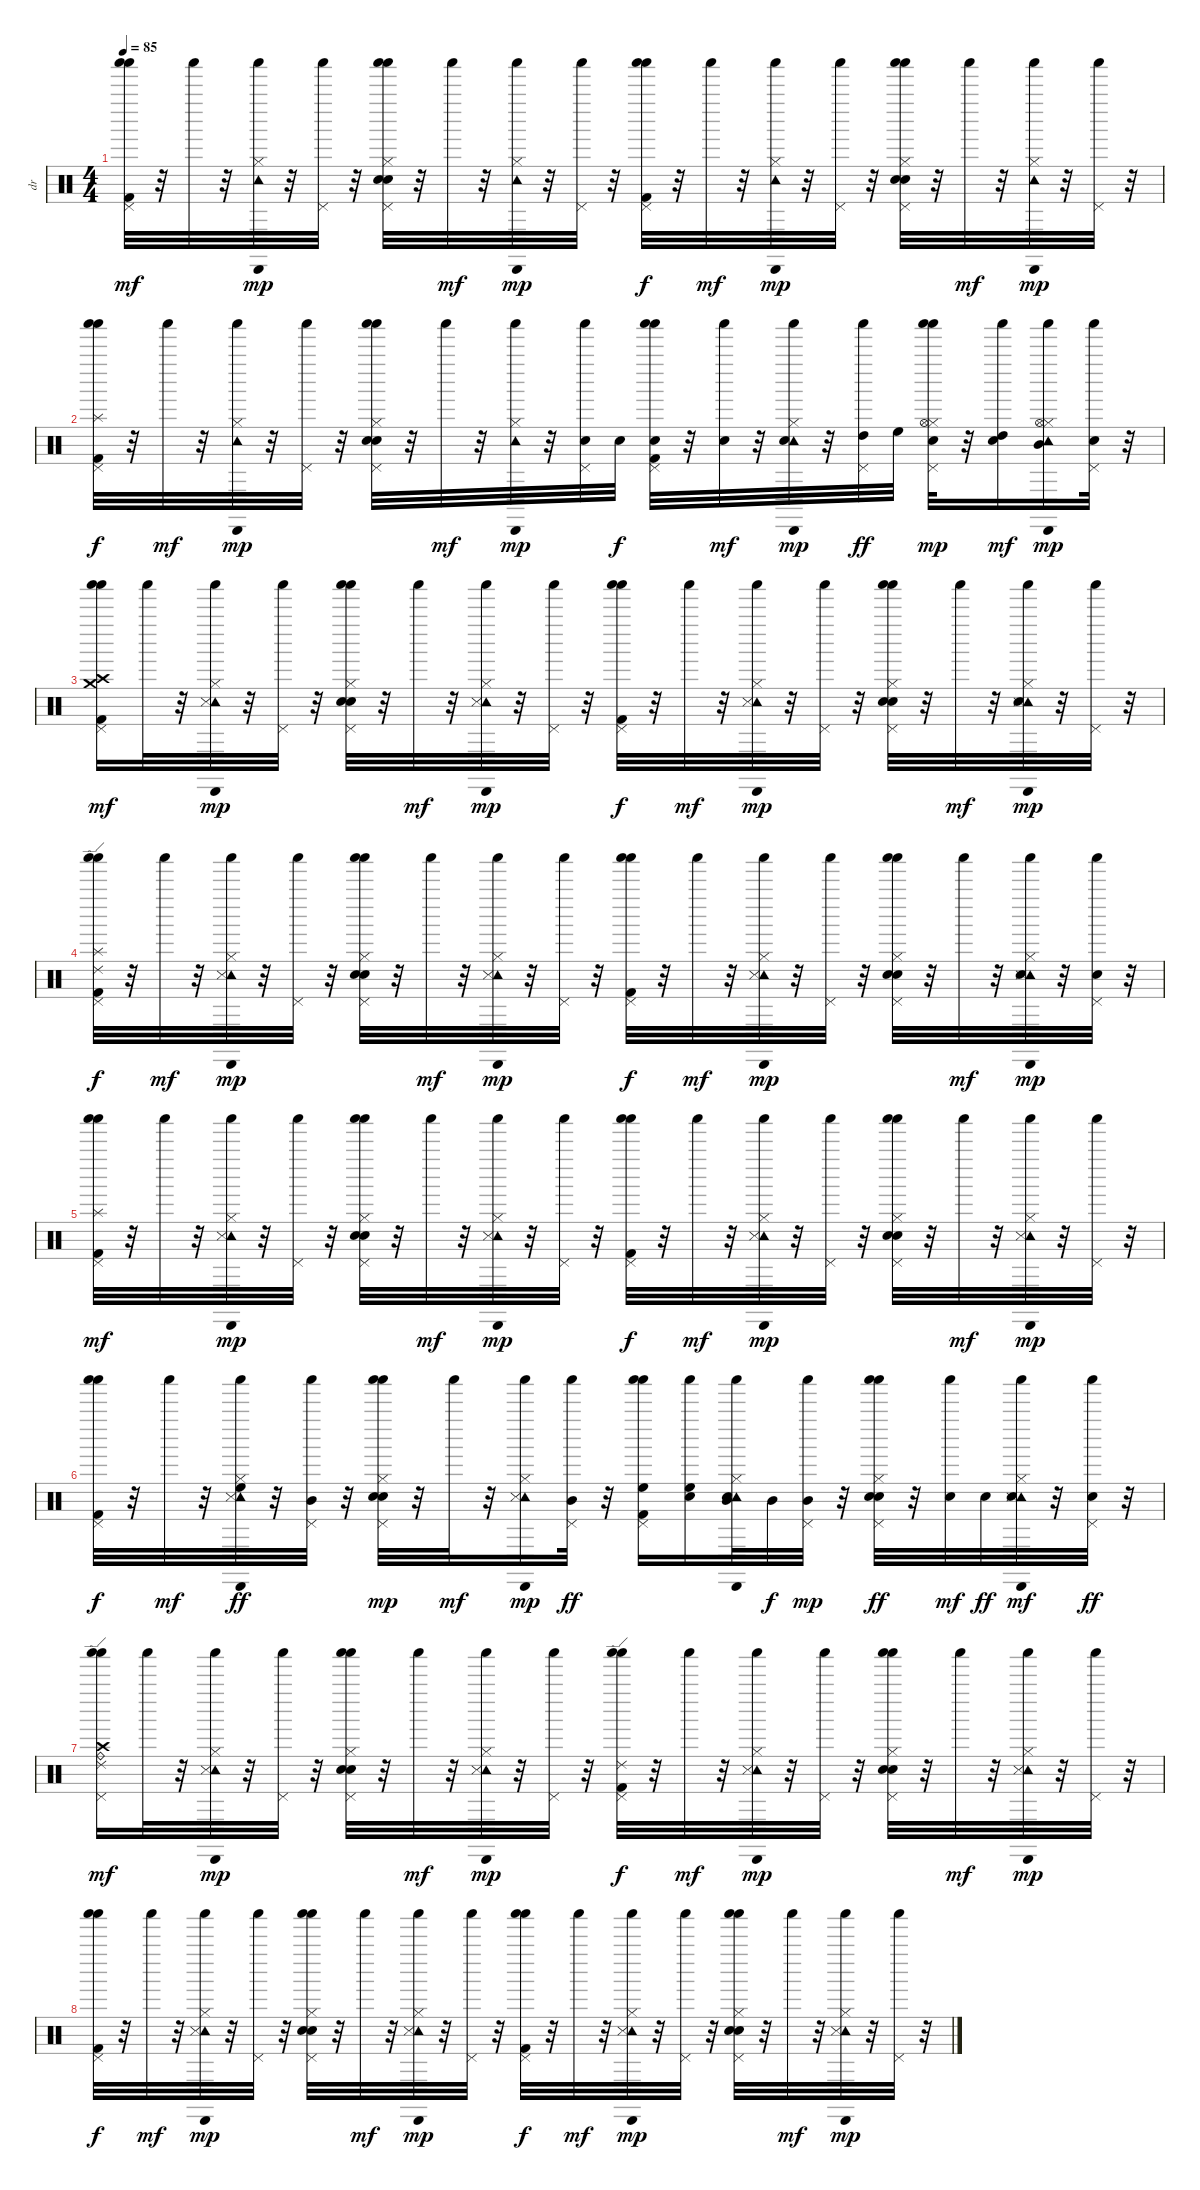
\track ("dr" "dr") {instrument percussion}
\staff {score}
\articulation defaults
\ts (4 4)
\tempo 85
\clef neutral
\ks c
("Pedal Hi-Hat (hit)" "Shaker (hit)" "Shaker (hit)" "Kick (hit) 2").32{dy mf} r.32 "Shaker (hit)".32 r.32 ("Hi-Hat (closed)" "Cabasa (hit)" "Tambourine (hit)" "Shaker (hit)").32{dy mp} r.32 ("Pedal Hi-Hat (hit)" "Shaker (hit)").32 r.32 ("Electric Snare (hit)" "Pedal Hi-Hat (hit)" "Shaker (hit)" "Shaker (hit)" "Hi-Hat (closed)" "Snare (hit) 2").32 r.32 "Shaker (hit)".32{dy mf} r.32 ("Hi-Hat (closed)" "Tambourine (hit)" "Cabasa (hit)" "Shaker (hit)").32{dy mp} r.32 ("Pedal Hi-Hat (hit)" "Shaker (hit)").32 r.32 ("Pedal Hi-Hat (hit)" "Shaker (hit)" "Shaker (hit)" "Kick (hit) 2").32{dy f} r.32 "Shaker (hit)".32{dy mf} r.32 ("Hi-Hat (closed)" "Cabasa (hit)" "Tambourine (hit)" "Shaker (hit)").32{dy mp} r.32 ("Pedal Hi-Hat (hit)" "Shaker (hit)").32 r.32 ("Electric Snare (hit)" "Pedal Hi-Hat (hit)" "Shaker (hit)" "Shaker (hit)" "Hi-Hat (closed)" "Snare (hit) 2").32 r.32 "Shaker (hit)".32{dy mf} r.32 ("Hi-Hat (closed)" "Cabasa (hit)" "Tambourine (hit)" "Shaker (hit)").32{dy mp} r.32 ("Pedal Hi-Hat (hit)" "Shaker (hit)").32 r.32 |
("Pedal Hi-Hat (hit)" "Shaker (hit)" "Shaker (hit)" "Kick (hit) 2" "Splash (hit)").32{dy f} r.32 "Shaker (hit)".32{dy mf} r.32 ("Hi-Hat (closed)" "Cabasa (hit)" "Shaker (hit)" "Tambourine (hit)").32{dy mp} r.32 ("Pedal Hi-Hat (hit)" "Shaker (hit)").32 r.32 ("Pedal Hi-Hat (hit)" "Shaker (hit)" "Shaker (hit)" "Hi-Hat (closed)" "Electric Snare (hit)" "Snare (hit) 2").32 r.32 "Shaker (hit)".32{dy mf} r.32 ("Hi-Hat (closed)" "Cabasa (hit)" "Tambourine (hit)" "Shaker (hit)").32{dy mp} r.32 ("Pedal Hi-Hat (hit)" "Shaker (hit)" "Snare (hit) 2").32 "Snare (hit) 2".32{dy f} ("Pedal Hi-Hat (hit)" "Shaker (hit)" "Shaker (hit)" "Kick (hit) 2" "Snare (hit) 2").32 r.32 ("Shaker (hit)" "Snare (hit) 2").32{dy mf} r.32 ("Hi-Hat (closed)" "Cabasa (hit)" "Tambourine (hit)" "Shaker (hit)" "Electric Snare (hit)").32{dy mp} r.32 ("Pedal Hi-Hat (hit)" "Shaker (hit)" "High Tom (hit)").32{dy ff} "High Floor Tom (hit)".32 ("Electric Snare (hit)" "Pedal Hi-Hat (hit)" "Shaker (hit)" "Shaker (hit)" "Hi-Hat (closed)" "Hi-Hat (open)").32{dy mp} r.32 ("Shaker (hit)" "Snare (hit) 2" "High Tom (hit)").16{dy mf} ("Hi-Hat (closed)" "Cabasa (hit)" "Tambourine (hit)" "Shaker (hit)" "Hi-Hat (open)" "Mid Tom (hit)").16{dy mp} ("Shaker (hit)" "Pedal Hi-Hat (hit)" "Snare (hit) 2").32 r.32 |
("Kick (hit) 2" "Crash high (hit)" "Crash medium (hit)" "Pedal Hi-Hat (hit)" "Shaker (hit)" "Shaker (hit)").16{dy mf} "Shaker (hit)".32 r.32 ("Hi-Hat (closed)" "Cabasa (hit)" "Shaker (hit)" "Tambourine (hit)" "Snare (side stick) 3").32{dy mp} r.32 ("Pedal Hi-Hat (hit)" "Shaker (hit)").32 r.32 ("Electric Snare (hit)" "Pedal Hi-Hat (hit)" "Shaker (hit)" "Shaker (hit)" "Hi-Hat (closed)" "Snare (hit) 2").32 r.32 "Shaker (hit)".32{dy mf} r.32 ("Hi-Hat (closed)" "Tambourine (hit)" "Cabasa (hit)" "Shaker (hit)" "Snare (side stick) 3").32{dy mp} r.32 ("Pedal Hi-Hat (hit)" "Shaker (hit)").32 r.32 ("Pedal Hi-Hat (hit)" "Shaker (hit)" "Shaker (hit)" "Kick (hit) 2").32{dy f} r.32 "Shaker (hit)".32{dy mf} r.32 ("Hi-Hat (closed)" "Tambourine (hit)" "Cabasa (hit)" "Shaker (hit)" "Snare (side stick) 3").32{dy mp} r.32 ("Pedal Hi-Hat (hit)" "Shaker (hit)").32 r.32 ("Electric Snare (hit)" "Pedal Hi-Hat (hit)" "Shaker (hit)" "Shaker (hit)" "Hi-Hat (closed)" "Snare (hit) 2").32 r.32 "Shaker (hit)".32{dy mf} r.32 ("Hi-Hat (closed)" "Tambourine (hit)" "Cabasa (hit)" "Shaker (hit)" "Snare (hit) 2" "Snare (side stick) 3").32{dy mp} r.32 ("Pedal Hi-Hat (hit)" "Shaker (hit)").32 r.32 |
("Pedal Hi-Hat (hit)" "Shaker (hit)" "Shaker (hit)" "Kick (hit) 2" "Splash (hit)" "Ride (edge) 2").32{dy f} r.32 "Shaker (hit)".32{dy mf} r.32 ("Hi-Hat (closed)" "Tambourine (hit)" "Cabasa (hit)" "Shaker (hit)" "Snare (side stick) 3").32{dy mp} r.32 ("Pedal Hi-Hat (hit)" "Shaker (hit)").32 r.32 ("Electric Snare (hit)" "Pedal Hi-Hat (hit)" "Shaker (hit)" "Shaker (hit)" "Hi-Hat (closed)" "Snare (hit) 2").32 r.32 "Shaker (hit)".32{dy mf} r.32 ("Hi-Hat (closed)" "Tambourine (hit)" "Cabasa (hit)" "Shaker (hit)" "Snare (side stick) 3").32{dy mp} r.32 ("Pedal Hi-Hat (hit)" "Shaker (hit)").32 r.32 ("Pedal Hi-Hat (hit)" "Shaker (hit)" "Shaker (hit)" "Kick (hit) 2").32{dy f} r.32 "Shaker (hit)".32{dy mf} r.32 ("Hi-Hat (closed)" "Tambourine (hit)" "Cabasa (hit)" "Shaker (hit)" "Snare (side stick) 3").32{dy mp} r.32 ("Pedal Hi-Hat (hit)" "Shaker (hit)").32 r.32 ("Electric Snare (hit)" "Pedal Hi-Hat (hit)" "Shaker (hit)" "Shaker (hit)" "Hi-Hat (closed)" "Snare (hit) 2").32 r.32 "Shaker (hit)".32{dy mf} r.32 ("Hi-Hat (closed)" "Tambourine (hit)" "Cabasa (hit)" "Shaker (hit)" "Snare (hit) 2" "Snare (side stick) 3").32{dy mp} r.32 ("Pedal Hi-Hat (hit)" "Shaker (hit)" "Snare (hit) 2").32 r.32 |
("Pedal Hi-Hat (hit)" "Shaker (hit)" "Shaker (hit)" "Kick (hit) 2" "Splash (hit)").32{dy mf} r.32 "Shaker (hit)".32 r.32 ("Hi-Hat (closed)" "Cabasa (hit)" "Tambourine (hit)" "Shaker (hit)" "Snare (side stick) 3").32{dy mp} r.32 ("Pedal Hi-Hat (hit)" "Shaker (hit)").32 r.32 ("Electric Snare (hit)" "Pedal Hi-Hat (hit)" "Shaker (hit)" "Shaker (hit)" "Hi-Hat (closed)" "Snare (hit) 2").32 r.32 "Shaker (hit)".32{dy mf} r.32 ("Hi-Hat (closed)" "Tambourine (hit)" "Cabasa (hit)" "Shaker (hit)" "Snare (side stick) 3").32{dy mp} r.32 ("Pedal Hi-Hat (hit)" "Shaker (hit)").32 r.32 ("Pedal Hi-Hat (hit)" "Shaker (hit)" "Shaker (hit)" "Kick (hit) 2").32{dy f} r.32 "Shaker (hit)".32{dy mf} r.32 ("Hi-Hat (closed)" "Cabasa (hit)" "Tambourine (hit)" "Shaker (hit)" "Snare (side stick) 3").32{dy mp} r.32 ("Pedal Hi-Hat (hit)" "Shaker (hit)").32 r.32 ("Electric Snare (hit)" "Pedal Hi-Hat (hit)" "Shaker (hit)" "Shaker (hit)" "Hi-Hat (closed)" "Snare (hit) 2").32 r.32 "Shaker (hit)".32{dy mf} r.32 ("Hi-Hat (closed)" "Cabasa (hit)" "Tambourine (hit)" "Shaker (hit)" "Snare (side stick) 3").32{dy mp} r.32 ("Pedal Hi-Hat (hit)" "Shaker (hit)").32 r.32 |
("Pedal Hi-Hat (hit)" "Shaker (hit)" "Shaker (hit)" "Kick (hit) 2").32{dy f} r.32 "Shaker (hit)".32{dy mf} r.32 ("Hi-Hat (closed)" "Cabasa (hit)" "Tambourine (hit)" "Shaker (hit)" "High Floor Tom (hit)" "Snare (side stick) 3").32{dy ff} r.32 ("Pedal Hi-Hat (hit)" "Shaker (hit)" "Mid Tom (hit)").32 r.32 ("Pedal Hi-Hat (hit)" "Shaker (hit)" "Shaker (hit)" "Hi-Hat (closed)" "Electric Snare (hit)" "Snare (hit) 2").32{dy mp} r.32 "Shaker (hit)".32{dy mf} r.32 ("Hi-Hat (closed)" "Cabasa (hit)" "Tambourine (hit)" "Shaker (hit)" "Snare (side stick) 3").16{dy mp} ("Pedal Hi-Hat (hit)" "Shaker (hit)" "Mid Tom (hit)").32{dy ff} r.32 ("Pedal Hi-Hat (hit)" "Shaker (hit)" "Shaker (hit)" "Kick (hit) 2" "High Floor Tom (hit)").16 ("Shaker (hit)" "Snare (hit) 2" "High Floor Tom (hit)").16 ("Hi-Hat (closed)" "Cabasa (hit)" "Tambourine (hit)" "Shaker (hit)" "Snare (hit) 2" "Mid Tom (hit)").32 "Mid Tom (hit)".32{dy f} ("Pedal Hi-Hat (hit)" "Shaker (hit)" "Mid Tom (hit)").32{dy mp} r.32 ("Electric Snare (hit)" "Pedal Hi-Hat (hit)" "Shaker (hit)" "Shaker (hit)" "Hi-Hat (closed)" "Snare (hit) 2").32{dy ff} r.32 ("Shaker (hit)" "Snare (hit) 2").32{dy mf} "Snare (hit) 2".32{dy ff} ("Hi-Hat (closed)" "Cabasa (hit)" "Tambourine (hit)" "Shaker (hit)" "Snare (hit) 2" "Snare (side stick) 3").32{dy mf} r.32 ("Shaker (hit)" "Pedal Hi-Hat (hit)" "Snare (hit) 2").32{dy ff} r.32 |
("Shaker (hit)" "Shaker (hit)" "Ride (edge) 2" "Crash high (hit)" "Pedal Hi-Hat (hit)" "Ride (bell)").16{dy mf} "Shaker (hit)".32 r.32 ("Hi-Hat (closed)" "Cabasa (hit)" "Shaker (hit)" "Tambourine (hit)" "Snare (side stick) 3").32{dy mp} r.32 ("Pedal Hi-Hat (hit)" "Shaker (hit)").32 r.32 ("Electric Snare (hit)" "Pedal Hi-Hat (hit)" "Shaker (hit)" "Shaker (hit)" "Hi-Hat (closed)" "Snare (hit) 2").32 r.32 "Shaker (hit)".32{dy mf} r.32 ("Hi-Hat (closed)" "Tambourine (hit)" "Cabasa (hit)" "Shaker (hit)" "Snare (side stick) 3").32{dy mp} r.32 ("Pedal Hi-Hat (hit)" "Shaker (hit)").32 r.32 ("Pedal Hi-Hat (hit)" "Shaker (hit)" "Shaker (hit)" "Kick (hit) 2" "Ride (edge) 2").32{dy f} r.32 "Shaker (hit)".32{dy mf} r.32 ("Hi-Hat (closed)" "Tambourine (hit)" "Cabasa (hit)" "Shaker (hit)" "Snare (side stick) 3").32{dy mp} r.32 ("Pedal Hi-Hat (hit)" "Shaker (hit)").32 r.32 ("Pedal Hi-Hat (hit)" "Shaker (hit)" "Shaker (hit)" "Snare (hit) 2" "Electric Snare (hit)" "Hi-Hat (closed)").32 r.32 "Shaker (hit)".32{dy mf} r.32 ("Hi-Hat (closed)" "Cabasa (hit)" "Shaker (hit)" "Tambourine (hit)" "Snare (side stick) 3").32{dy mp} r.32 ("Pedal Hi-Hat (hit)" "Shaker (hit)").32 r.32 |
("Pedal Hi-Hat (hit)" "Shaker (hit)" "Shaker (hit)" "Kick (hit) 2").32{dy f} r.32 "Shaker (hit)".32{dy mf} r.32 ("Hi-Hat (closed)" "Tambourine (hit)" "Cabasa (hit)" "Shaker (hit)" "Snare (side stick) 3").32{dy mp} r.32 ("Pedal Hi-Hat (hit)" "Shaker (hit)").32 r.32 ("Electric Snare (hit)" "Pedal Hi-Hat (hit)" "Shaker (hit)" "Shaker (hit)" "Hi-Hat (closed)" "Snare (hit) 2").32 r.32 "Shaker (hit)".32{dy mf} r.32 ("Hi-Hat (closed)" "Tambourine (hit)" "Cabasa (hit)" "Shaker (hit)" "Snare (side stick) 3").32{dy mp} r.32 ("Pedal Hi-Hat (hit)" "Shaker (hit)").32 r.32 ("Pedal Hi-Hat (hit)" "Shaker (hit)" "Shaker (hit)" "Kick (hit) 2").32{dy f} r.32 "Shaker (hit)".32{dy mf} r.32 ("Hi-Hat (closed)" "Tambourine (hit)" "Cabasa (hit)" "Shaker (hit)" "Snare (side stick) 3").32{dy mp} r.32 ("Pedal Hi-Hat (hit)" "Shaker (hit)").32 r.32 ("Electric Snare (hit)" "Pedal Hi-Hat (hit)" "Shaker (hit)" "Shaker (hit)" "Hi-Hat (closed)" "Snare (hit) 2").32 r.32 "Shaker (hit)".32{dy mf} r.32 ("Hi-Hat (closed)" "Tambourine (hit)" "Cabasa (hit)" "Shaker (hit)" "Snare (side stick) 3").32{dy mp} r.32 ("Pedal Hi-Hat (hit)" "Shaker (hit)").32 r.32
